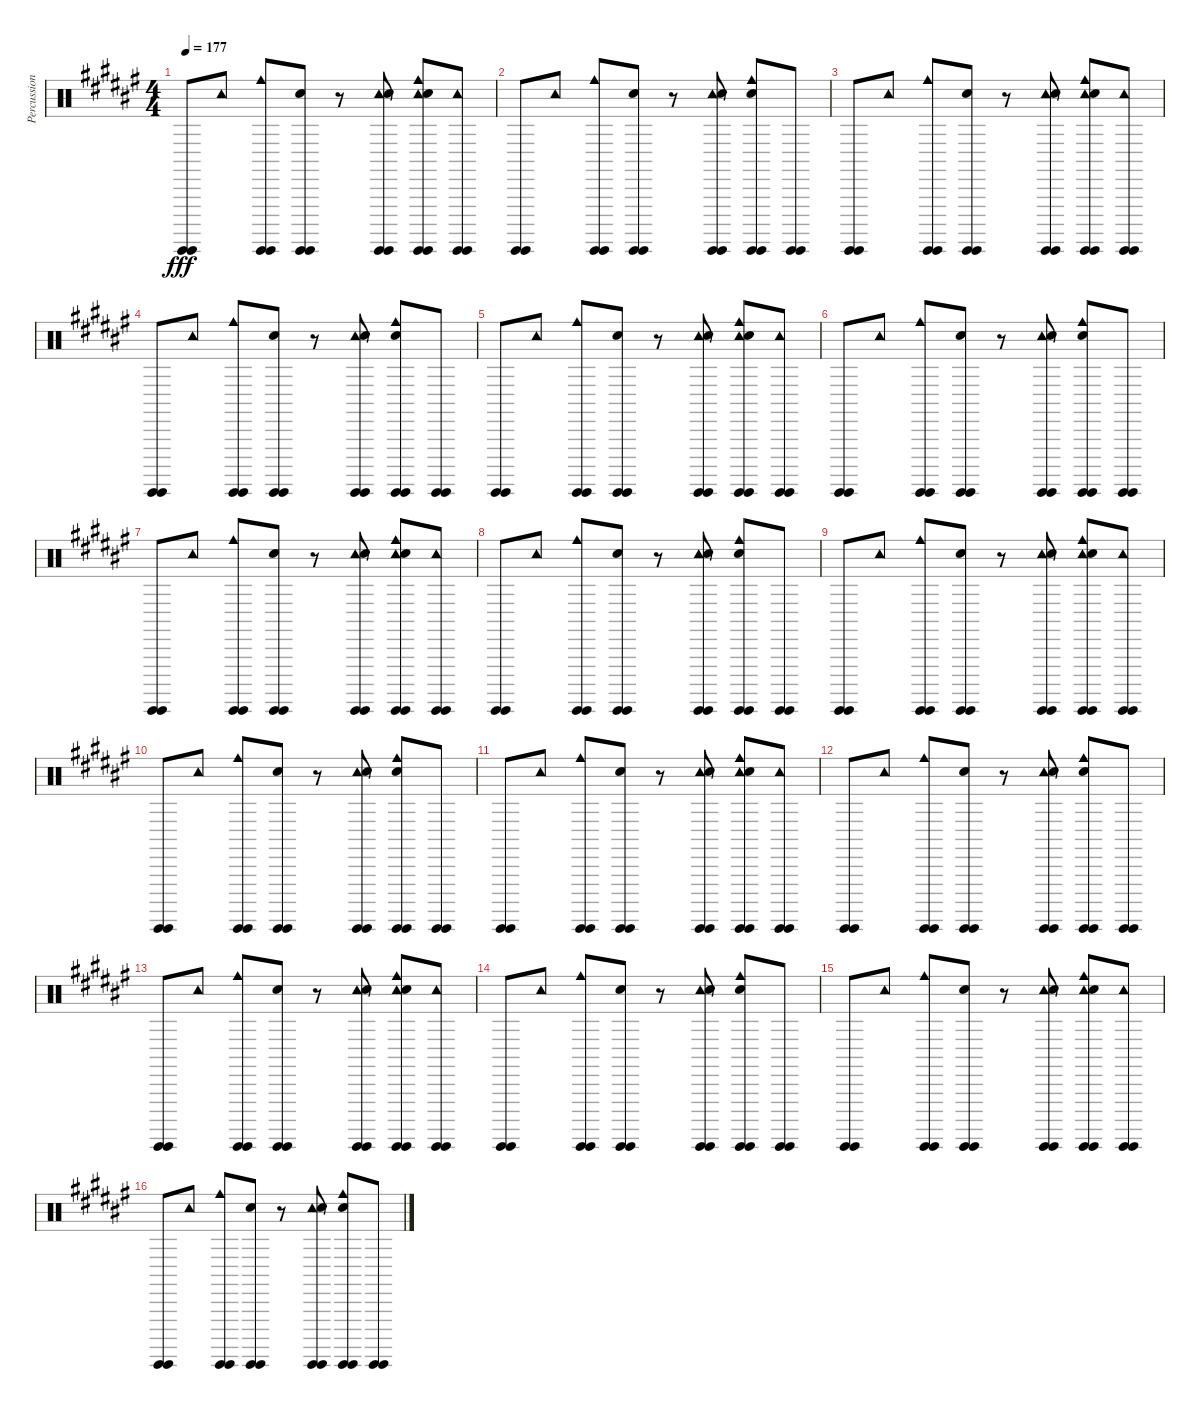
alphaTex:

\track ("Percussion" "Percussion") {instrument percussion}
\staff {score}
\articulation defaults
\ts (4 4)
\tempo 177
\clef neutral
\ks d#minor
("Guiro (hit)" "Guiro (hit)").8{dy fff} "Tambourine (hit)".8 ("Cowbell medium (hit)" "Guiro (hit)" "Guiro (hit)").8 ("Guiro (hit)" "Guiro (hit)" "Hand Clap (hit)").8 r.8 ("Tambourine (hit)" "Guiro (hit)" "Guiro (hit)" "Hand Clap (hit)").8 ("Cowbell medium (hit)" "Tambourine (hit)" "Guiro (hit)" "Guiro (hit)" "Hand Clap (hit)").8 ("Tambourine (hit)" "Guiro (hit)" "Guiro (hit)").8 |
("Guiro (hit)" "Guiro (hit)").8 "Tambourine (hit)".8 ("Cowbell medium (hit)" "Guiro (hit)" "Guiro (hit)").8 ("Guiro (hit)" "Guiro (hit)" "Hand Clap (hit)").8 r.8 ("Tambourine (hit)" "Guiro (hit)" "Guiro (hit)" "Hand Clap (hit)").8 ("Cowbell medium (hit)" "Guiro (hit)" "Guiro (hit)" "Hand Clap (hit)").8 ("Guiro (hit)" "Guiro (hit)").8 |
("Guiro (hit)" "Guiro (hit)").8 "Tambourine (hit)".8 ("Cowbell medium (hit)" "Guiro (hit)" "Guiro (hit)").8 ("Guiro (hit)" "Guiro (hit)" "Hand Clap (hit)").8 r.8 ("Tambourine (hit)" "Guiro (hit)" "Guiro (hit)" "Hand Clap (hit)").8 ("Cowbell medium (hit)" "Tambourine (hit)" "Guiro (hit)" "Guiro (hit)" "Hand Clap (hit)").8 ("Tambourine (hit)" "Guiro (hit)" "Guiro (hit)").8 |
("Guiro (hit)" "Guiro (hit)").8 "Tambourine (hit)".8 ("Cowbell medium (hit)" "Guiro (hit)" "Guiro (hit)").8 ("Guiro (hit)" "Guiro (hit)" "Hand Clap (hit)").8 r.8 ("Tambourine (hit)" "Guiro (hit)" "Guiro (hit)" "Hand Clap (hit)").8 ("Cowbell medium (hit)" "Guiro (hit)" "Guiro (hit)" "Hand Clap (hit)").8 ("Guiro (hit)" "Guiro (hit)").8 |
("Guiro (hit)" "Guiro (hit)").8 "Tambourine (hit)".8 ("Cowbell medium (hit)" "Guiro (hit)" "Guiro (hit)").8 ("Guiro (hit)" "Guiro (hit)" "Hand Clap (hit)").8 r.8 ("Tambourine (hit)" "Guiro (hit)" "Guiro (hit)" "Hand Clap (hit)").8 ("Cowbell medium (hit)" "Tambourine (hit)" "Guiro (hit)" "Guiro (hit)" "Hand Clap (hit)").8 ("Tambourine (hit)" "Guiro (hit)" "Guiro (hit)").8 |
("Guiro (hit)" "Guiro (hit)").8 "Tambourine (hit)".8 ("Cowbell medium (hit)" "Guiro (hit)" "Guiro (hit)").8 ("Guiro (hit)" "Guiro (hit)" "Hand Clap (hit)").8 r.8 ("Tambourine (hit)" "Guiro (hit)" "Guiro (hit)" "Hand Clap (hit)").8 ("Cowbell medium (hit)" "Guiro (hit)" "Guiro (hit)" "Hand Clap (hit)").8 ("Guiro (hit)" "Guiro (hit)").8 |
("Guiro (hit)" "Guiro (hit)").8 "Tambourine (hit)".8 ("Cowbell medium (hit)" "Guiro (hit)" "Guiro (hit)").8 ("Guiro (hit)" "Guiro (hit)" "Hand Clap (hit)").8 r.8 ("Tambourine (hit)" "Guiro (hit)" "Guiro (hit)" "Hand Clap (hit)").8 ("Cowbell medium (hit)" "Tambourine (hit)" "Guiro (hit)" "Guiro (hit)" "Hand Clap (hit)").8 ("Tambourine (hit)" "Guiro (hit)" "Guiro (hit)").8 |
("Guiro (hit)" "Guiro (hit)").8 "Tambourine (hit)".8 ("Cowbell medium (hit)" "Guiro (hit)" "Guiro (hit)").8 ("Guiro (hit)" "Guiro (hit)" "Hand Clap (hit)").8 r.8 ("Tambourine (hit)" "Guiro (hit)" "Guiro (hit)" "Hand Clap (hit)").8 ("Cowbell medium (hit)" "Guiro (hit)" "Guiro (hit)" "Hand Clap (hit)").8 ("Guiro (hit)" "Guiro (hit)").8 |
("Guiro (hit)" "Guiro (hit)").8 "Tambourine (hit)".8 ("Cowbell medium (hit)" "Guiro (hit)" "Guiro (hit)").8 ("Guiro (hit)" "Guiro (hit)" "Hand Clap (hit)").8 r.8 ("Tambourine (hit)" "Guiro (hit)" "Guiro (hit)" "Hand Clap (hit)").8 ("Cowbell medium (hit)" "Tambourine (hit)" "Guiro (hit)" "Guiro (hit)" "Hand Clap (hit)").8 ("Tambourine (hit)" "Guiro (hit)" "Guiro (hit)").8 |
("Guiro (hit)" "Guiro (hit)").8 "Tambourine (hit)".8 ("Cowbell medium (hit)" "Guiro (hit)" "Guiro (hit)").8 ("Guiro (hit)" "Guiro (hit)" "Hand Clap (hit)").8 r.8 ("Tambourine (hit)" "Guiro (hit)" "Guiro (hit)" "Hand Clap (hit)").8 ("Cowbell medium (hit)" "Guiro (hit)" "Guiro (hit)" "Hand Clap (hit)").8 ("Guiro (hit)" "Guiro (hit)").8 |
("Guiro (hit)" "Guiro (hit)").8 "Tambourine (hit)".8 ("Cowbell medium (hit)" "Guiro (hit)" "Guiro (hit)").8 ("Guiro (hit)" "Guiro (hit)" "Hand Clap (hit)").8 r.8 ("Tambourine (hit)" "Guiro (hit)" "Guiro (hit)" "Hand Clap (hit)").8 ("Cowbell medium (hit)" "Tambourine (hit)" "Guiro (hit)" "Guiro (hit)" "Hand Clap (hit)").8 ("Tambourine (hit)" "Guiro (hit)" "Guiro (hit)").8 |
("Guiro (hit)" "Guiro (hit)").8 "Tambourine (hit)".8 ("Cowbell medium (hit)" "Guiro (hit)" "Guiro (hit)").8 ("Guiro (hit)" "Guiro (hit)" "Hand Clap (hit)").8 r.8 ("Tambourine (hit)" "Guiro (hit)" "Guiro (hit)" "Hand Clap (hit)").8 ("Cowbell medium (hit)" "Guiro (hit)" "Guiro (hit)" "Hand Clap (hit)").8 ("Guiro (hit)" "Guiro (hit)").8 |
("Guiro (hit)" "Guiro (hit)").8 "Tambourine (hit)".8 ("Cowbell medium (hit)" "Guiro (hit)" "Guiro (hit)").8 ("Guiro (hit)" "Guiro (hit)" "Hand Clap (hit)").8 r.8 ("Tambourine (hit)" "Guiro (hit)" "Guiro (hit)" "Hand Clap (hit)").8 ("Cowbell medium (hit)" "Tambourine (hit)" "Guiro (hit)" "Guiro (hit)" "Hand Clap (hit)").8 ("Tambourine (hit)" "Guiro (hit)" "Guiro (hit)").8 |
("Guiro (hit)" "Guiro (hit)").8 "Tambourine (hit)".8 ("Cowbell medium (hit)" "Guiro (hit)" "Guiro (hit)").8 ("Guiro (hit)" "Guiro (hit)" "Hand Clap (hit)").8 r.8 ("Tambourine (hit)" "Guiro (hit)" "Guiro (hit)" "Hand Clap (hit)").8 ("Cowbell medium (hit)" "Guiro (hit)" "Guiro (hit)" "Hand Clap (hit)").8 ("Guiro (hit)" "Guiro (hit)").8 |
("Guiro (hit)" "Guiro (hit)").8 "Tambourine (hit)".8 ("Cowbell medium (hit)" "Guiro (hit)" "Guiro (hit)").8 ("Guiro (hit)" "Guiro (hit)" "Hand Clap (hit)").8 r.8 ("Tambourine (hit)" "Guiro (hit)" "Guiro (hit)" "Hand Clap (hit)").8 ("Cowbell medium (hit)" "Tambourine (hit)" "Guiro (hit)" "Guiro (hit)" "Hand Clap (hit)").8 ("Tambourine (hit)" "Guiro (hit)" "Guiro (hit)").8 |
("Guiro (hit)" "Guiro (hit)").8 "Tambourine (hit)".8 ("Cowbell medium (hit)" "Guiro (hit)" "Guiro (hit)").8 ("Guiro (hit)" "Guiro (hit)" "Hand Clap (hit)").8 r.8 ("Tambourine (hit)" "Guiro (hit)" "Guiro (hit)" "Hand Clap (hit)").8 ("Cowbell medium (hit)" "Guiro (hit)" "Guiro (hit)" "Hand Clap (hit)").8 ("Guiro (hit)" "Guiro (hit)").8
